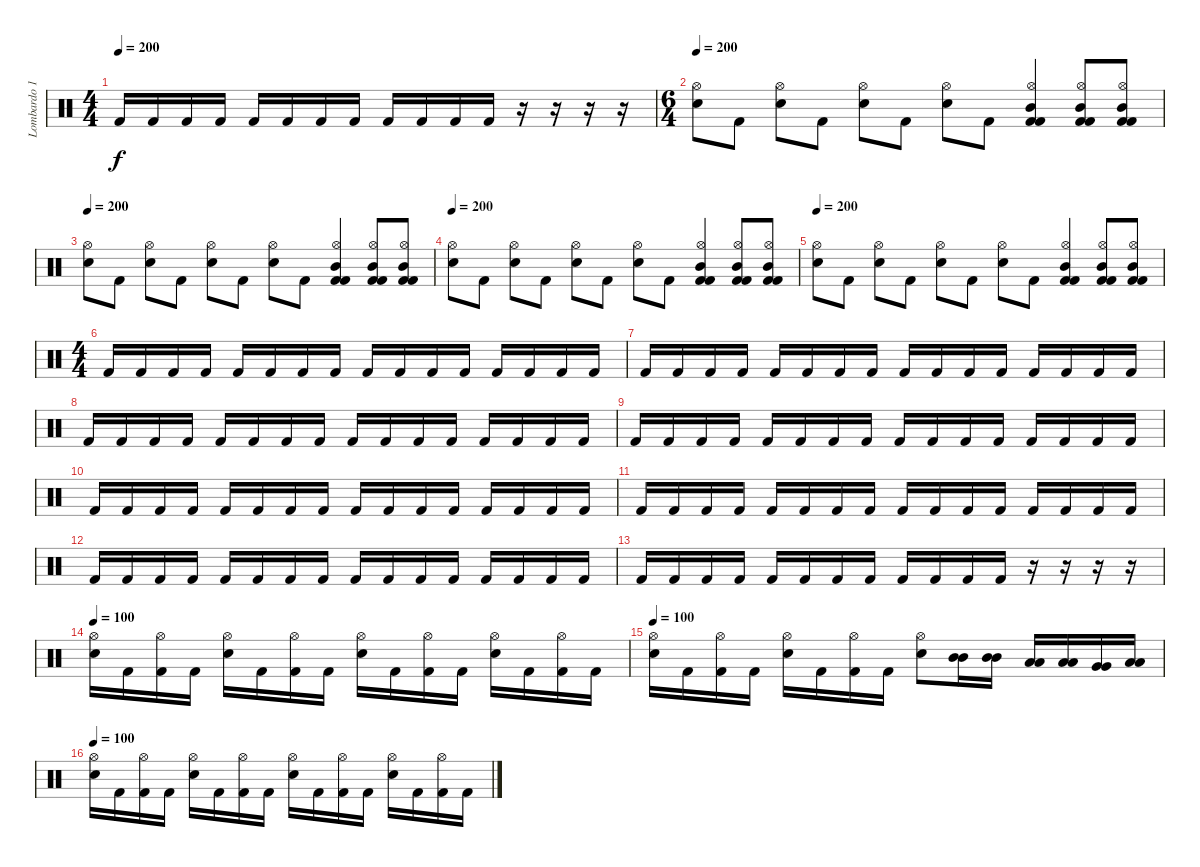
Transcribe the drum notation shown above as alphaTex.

\track ("Lombardo 1" "Lombardo 1") {instrument percussion}
\staff {score}
\articulation defaults
\ts (4 4)
\tempo 200
\clef neutral
\ks c "Kick (hit) 2".16{dy f} "Kick (hit) 2".16 "Kick (hit) 2".16 "Kick (hit) 2".16 "Kick (hit) 2".16 "Kick (hit) 2".16 "Kick (hit) 2".16 "Kick (hit) 2".16 "Kick (hit) 2".16 "Kick (hit) 2".16 "Kick (hit) 2".16 "Kick (hit) 2".16
r.16 r.16 r.16 r.16 |
\ts (6 4)
\tempo 200
("Hi-Hat (open)" "Electric Snare (hit)").8 "Kick (hit) 2".8 ("Hi-Hat (open)" "Electric Snare (hit)").8 "Kick (hit) 2".8 ("Hi-Hat (open)" "Electric Snare (hit)").8 "Kick (hit) 2".8 ("Hi-Hat (open)" "Electric Snare (hit)").8 "Kick (hit) 2".8 ("Hi-Hat (open)" "Mid Tom (hit)" "Kick (hit) 2" "Kick (hit) 2").4 ("Hi-Hat (open)" "Mid Tom (hit)" "Kick (hit) 2" "Kick (hit) 2").8 ("Hi-Hat (open)" "Mid Tom (hit)" "Kick (hit) 2" "Kick (hit) 2").8 |
\tempo 200
("Hi-Hat (open)" "Electric Snare (hit)").8 "Kick (hit) 2".8 ("Hi-Hat (open)" "Electric Snare (hit)").8 "Kick (hit) 2".8 ("Hi-Hat (open)" "Electric Snare (hit)").8 "Kick (hit) 2".8 ("Hi-Hat (open)" "Electric Snare (hit)").8 "Kick (hit) 2".8 ("Hi-Hat (open)" "Mid Tom (hit)" "Kick (hit) 2" "Kick (hit) 2").4 ("Hi-Hat (open)" "Mid Tom (hit)" "Kick (hit) 2" "Kick (hit) 2").8 ("Hi-Hat (open)" "Mid Tom (hit)" "Kick (hit) 2" "Kick (hit) 2").8 |
\tempo 200
("Hi-Hat (open)" "Electric Snare (hit)").8 "Kick (hit) 2".8 ("Hi-Hat (open)" "Electric Snare (hit)").8 "Kick (hit) 2".8 ("Hi-Hat (open)" "Electric Snare (hit)").8 "Kick (hit) 2".8 ("Hi-Hat (open)" "Electric Snare (hit)").8 "Kick (hit) 2".8 ("Hi-Hat (open)" "Mid Tom (hit)" "Kick (hit) 2" "Kick (hit) 2").4 ("Hi-Hat (open)" "Mid Tom (hit)" "Kick (hit) 2" "Kick (hit) 2").8 ("Hi-Hat (open)" "Mid Tom (hit)" "Kick (hit) 2" "Kick (hit) 2").8 |
\tempo 200
("Hi-Hat (open)" "Electric Snare (hit)").8 "Kick (hit) 2".8 ("Hi-Hat (open)" "Electric Snare (hit)").8 "Kick (hit) 2".8 ("Hi-Hat (open)" "Electric Snare (hit)").8 "Kick (hit) 2".8 ("Hi-Hat (open)" "Electric Snare (hit)").8 "Kick (hit) 2".8 ("Hi-Hat (open)" "Mid Tom (hit)" "Kick (hit) 2" "Kick (hit) 2").4 ("Hi-Hat (open)" "Mid Tom (hit)" "Kick (hit) 2" "Kick (hit) 2").8 ("Hi-Hat (open)" "Mid Tom (hit)" "Kick (hit) 2" "Kick (hit) 2").8 |
\ts (4 4)
"Kick (hit) 2".16 "Kick (hit) 2".16 "Kick (hit) 2".16 "Kick (hit) 2".16 "Kick (hit) 2".16 "Kick (hit) 2".16 "Kick (hit) 2".16 "Kick (hit) 2".16 "Kick (hit) 2".16 "Kick (hit) 2".16 "Kick (hit) 2".16 "Kick (hit) 2".16 "Kick (hit) 2".16 "Kick (hit) 2".16 "Kick (hit) 2".16 "Kick (hit) 2".16 |
"Kick (hit) 2".16 "Kick (hit) 2".16 "Kick (hit) 2".16 "Kick (hit) 2".16 "Kick (hit) 2".16 "Kick (hit) 2".16 "Kick (hit) 2".16 "Kick (hit) 2".16 "Kick (hit) 2".16 "Kick (hit) 2".16 "Kick (hit) 2".16 "Kick (hit) 2".16 "Kick (hit) 2".16 "Kick (hit) 2".16 "Kick (hit) 2".16 "Kick (hit) 2".16 |
"Kick (hit) 2".16 "Kick (hit) 2".16 "Kick (hit) 2".16 "Kick (hit) 2".16 "Kick (hit) 2".16 "Kick (hit) 2".16 "Kick (hit) 2".16 "Kick (hit) 2".16 "Kick (hit) 2".16 "Kick (hit) 2".16 "Kick (hit) 2".16 "Kick (hit) 2".16 "Kick (hit) 2".16 "Kick (hit) 2".16 "Kick (hit) 2".16 "Kick (hit) 2".16 |
"Kick (hit) 2".16 "Kick (hit) 2".16 "Kick (hit) 2".16 "Kick (hit) 2".16 "Kick (hit) 2".16 "Kick (hit) 2".16 "Kick (hit) 2".16 "Kick (hit) 2".16 "Kick (hit) 2".16 "Kick (hit) 2".16 "Kick (hit) 2".16 "Kick (hit) 2".16 "Kick (hit) 2".16 "Kick (hit) 2".16 "Kick (hit) 2".16 "Kick (hit) 2".16 |
"Kick (hit) 2".16 "Kick (hit) 2".16 "Kick (hit) 2".16 "Kick (hit) 2".16 "Kick (hit) 2".16 "Kick (hit) 2".16 "Kick (hit) 2".16 "Kick (hit) 2".16 "Kick (hit) 2".16 "Kick (hit) 2".16 "Kick (hit) 2".16 "Kick (hit) 2".16 "Kick (hit) 2".16 "Kick (hit) 2".16 "Kick (hit) 2".16 "Kick (hit) 2".16 |
"Kick (hit) 2".16 "Kick (hit) 2".16 "Kick (hit) 2".16 "Kick (hit) 2".16 "Kick (hit) 2".16 "Kick (hit) 2".16 "Kick (hit) 2".16 "Kick (hit) 2".16 "Kick (hit) 2".16 "Kick (hit) 2".16 "Kick (hit) 2".16 "Kick (hit) 2".16 "Kick (hit) 2".16 "Kick (hit) 2".16 "Kick (hit) 2".16 "Kick (hit) 2".16 |
"Kick (hit) 2".16 "Kick (hit) 2".16 "Kick (hit) 2".16 "Kick (hit) 2".16 "Kick (hit) 2".16 "Kick (hit) 2".16 "Kick (hit) 2".16 "Kick (hit) 2".16 "Kick (hit) 2".16 "Kick (hit) 2".16 "Kick (hit) 2".16 "Kick (hit) 2".16 "Kick (hit) 2".16 "Kick (hit) 2".16 "Kick (hit) 2".16 "Kick (hit) 2".16 |
"Kick (hit) 2".16 "Kick (hit) 2".16 "Kick (hit) 2".16 "Kick (hit) 2".16 "Kick (hit) 2".16 "Kick (hit) 2".16 "Kick (hit) 2".16 "Kick (hit) 2".16 "Kick (hit) 2".16 "Kick (hit) 2".16 "Kick (hit) 2".16 "Kick (hit) 2".16 r.16 r.16 r.16 r.16 |
\tempo 100
("Hi-Hat (open)" "Electric Snare (hit)").16 "Kick (hit) 2".16 ("Hi-Hat (open)" "Kick (hit) 2").16 "Kick (hit) 2".16 ("Hi-Hat (open)" "Electric Snare (hit)").16 "Kick (hit) 2".16 ("Hi-Hat (open)" "Kick (hit) 2").16 "Kick (hit) 2".16 ("Hi-Hat (open)" "Electric Snare (hit)").16 "Kick (hit) 2".16 ("Hi-Hat (open)" "Kick (hit) 2").16 "Kick (hit) 2".16 ("Hi-Hat (open)" "Electric Snare (hit)").16 "Kick (hit) 2".16 ("Hi-Hat (open)" "Kick (hit) 2").16 "Kick (hit) 2".16 |
\tempo 100
("Hi-Hat (open)" "Electric Snare (hit)").16 "Kick (hit) 2".16 ("Hi-Hat (open)" "Kick (hit) 2").16 "Kick (hit) 2".16 ("Hi-Hat (open)" "Electric Snare (hit)").16 "Kick (hit) 2".16 ("Hi-Hat (open)" "Kick (hit) 2").16 "Kick (hit) 2".16 ("Hi-Hat (open)" "Electric Snare (hit)").8 ("Mid Tom (hit)" "Mid Tom (hit)").16 ("Mid Tom (hit)" "Mid Tom (hit)").16 ("Low Tom (hit)" "Low Tom (hit)").16 ("Low Tom (hit)" "Low Tom (hit)").16 ("Very Low Tom (hit)" "Very Low Tom (hit)").16 ("Low Floor Tom (hit)" "Low Floor Tom (hit)").16 |
\tempo 110
\tempo 100
("Hi-Hat (open)" "Electric Snare (hit)").16 "Kick (hit) 2".16 ("Hi-Hat (open)" "Kick (hit) 2").16 "Kick (hit) 2".16 ("Hi-Hat (open)" "Electric Snare (hit)").16 "Kick (hit) 2".16 ("Hi-Hat (open)" "Kick (hit) 2").16 "Kick (hit) 2".16 ("Hi-Hat (open)" "Electric Snare (hit)").16 "Kick (hit) 2".16 ("Hi-Hat (open)" "Kick (hit) 2").16 "Kick (hit) 2".16 ("Hi-Hat (open)" "Electric Snare (hit)").16 "Kick (hit) 2".16 ("Hi-Hat (open)" "Kick (hit) 2").16 "Kick (hit) 2".16
